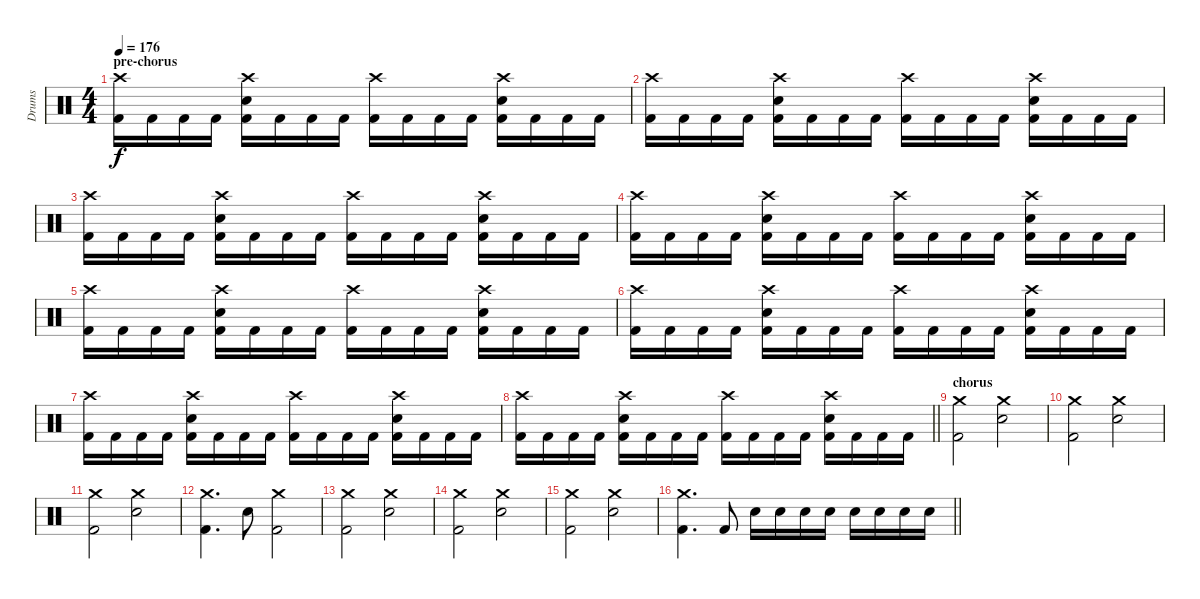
\track ("Drums" "Drums") {instrument percussion}
\staff {score}
\articulation defaults
\ts (4 4)
\section ("" "pre-chorus")
\tempo 176
\clef neutral
\ks c
("Crash high (hit)" "Kick (hit) 2").16{dy f} "Kick (hit) 2".16 "Kick (hit) 2".16 "Kick (hit) 2".16 ("Crash high (hit)" "Electric Snare (hit)" "Kick (hit) 2").16 "Kick (hit) 2".16 "Kick (hit) 2".16 "Kick (hit) 2".16 ("Crash high (hit)" "Kick (hit) 2").16 "Kick (hit) 2".16 "Kick (hit) 2".16 "Kick (hit) 2".16 ("Crash high (hit)" "Electric Snare (hit)" "Kick (hit) 2").16 "Kick (hit) 2".16 "Kick (hit) 2".16 "Kick (hit) 2".16 |
("Crash high (hit)" "Kick (hit) 2").16 "Kick (hit) 2".16 "Kick (hit) 2".16 "Kick (hit) 2".16 ("Crash high (hit)" "Electric Snare (hit)" "Kick (hit) 2").16 "Kick (hit) 2".16 "Kick (hit) 2".16 "Kick (hit) 2".16 ("Crash high (hit)" "Kick (hit) 2").16 "Kick (hit) 2".16 "Kick (hit) 2".16 "Kick (hit) 2".16 ("Crash high (hit)" "Electric Snare (hit)" "Kick (hit) 2").16 "Kick (hit) 2".16 "Kick (hit) 2".16 "Kick (hit) 2".16 |
("Crash high (hit)" "Kick (hit) 2").16 "Kick (hit) 2".16 "Kick (hit) 2".16 "Kick (hit) 2".16 ("Crash high (hit)" "Electric Snare (hit)" "Kick (hit) 2").16 "Kick (hit) 2".16 "Kick (hit) 2".16 "Kick (hit) 2".16 ("Crash high (hit)" "Kick (hit) 2").16 "Kick (hit) 2".16 "Kick (hit) 2".16 "Kick (hit) 2".16 ("Crash high (hit)" "Electric Snare (hit)" "Kick (hit) 2").16 "Kick (hit) 2".16 "Kick (hit) 2".16 "Kick (hit) 2".16 |
("Crash high (hit)" "Kick (hit) 2").16 "Kick (hit) 2".16 "Kick (hit) 2".16 "Kick (hit) 2".16 ("Crash high (hit)" "Electric Snare (hit)" "Kick (hit) 2").16 "Kick (hit) 2".16 "Kick (hit) 2".16 "Kick (hit) 2".16 ("Crash high (hit)" "Kick (hit) 2").16 "Kick (hit) 2".16 "Kick (hit) 2".16 "Kick (hit) 2".16 ("Crash high (hit)" "Electric Snare (hit)" "Kick (hit) 2").16 "Kick (hit) 2".16 "Kick (hit) 2".16 "Kick (hit) 2".16 |
("Crash high (hit)" "Kick (hit) 2").16 "Kick (hit) 2".16 "Kick (hit) 2".16 "Kick (hit) 2".16 ("Crash high (hit)" "Electric Snare (hit)" "Kick (hit) 2").16 "Kick (hit) 2".16 "Kick (hit) 2".16 "Kick (hit) 2".16 ("Crash high (hit)" "Kick (hit) 2").16 "Kick (hit) 2".16 "Kick (hit) 2".16 "Kick (hit) 2".16 ("Crash high (hit)" "Electric Snare (hit)" "Kick (hit) 2").16 "Kick (hit) 2".16 "Kick (hit) 2".16 "Kick (hit) 2".16 |
("Crash high (hit)" "Kick (hit) 2").16 "Kick (hit) 2".16 "Kick (hit) 2".16 "Kick (hit) 2".16 ("Crash high (hit)" "Electric Snare (hit)" "Kick (hit) 2").16 "Kick (hit) 2".16 "Kick (hit) 2".16 "Kick (hit) 2".16 ("Crash high (hit)" "Kick (hit) 2").16 "Kick (hit) 2".16 "Kick (hit) 2".16 "Kick (hit) 2".16 ("Crash high (hit)" "Electric Snare (hit)" "Kick (hit) 2").16 "Kick (hit) 2".16 "Kick (hit) 2".16 "Kick (hit) 2".16 |
("Crash high (hit)" "Kick (hit) 2").16 "Kick (hit) 2".16 "Kick (hit) 2".16 "Kick (hit) 2".16 ("Crash high (hit)" "Electric Snare (hit)" "Kick (hit) 2").16 "Kick (hit) 2".16 "Kick (hit) 2".16 "Kick (hit) 2".16 ("Crash high (hit)" "Kick (hit) 2").16 "Kick (hit) 2".16 "Kick (hit) 2".16 "Kick (hit) 2".16 ("Crash high (hit)" "Electric Snare (hit)" "Kick (hit) 2").16 "Kick (hit) 2".16 "Kick (hit) 2".16 "Kick (hit) 2".16 |
\barLineRight lightlight
("Crash high (hit)" "Kick (hit) 2").16 "Kick (hit) 2".16 "Kick (hit) 2".16 "Kick (hit) 2".16 ("Crash high (hit)" "Electric Snare (hit)" "Kick (hit) 2").16 "Kick (hit) 2".16 "Kick (hit) 2".16 "Kick (hit) 2".16 ("Crash high (hit)" "Kick (hit) 2").16 "Kick (hit) 2".16 "Kick (hit) 2".16 "Kick (hit) 2".16 ("Crash high (hit)" "Electric Snare (hit)" "Kick (hit) 2").16 "Kick (hit) 2".16 "Kick (hit) 2".16 "Kick (hit) 2".16 |
\section ("" "chorus")
("Crash medium (hit)" "Kick (hit) 2").2 ("Crash medium (hit)" "Electric Snare (hit)").2 |
("Crash medium (hit)" "Kick (hit) 2").2 ("Crash medium (hit)" "Electric Snare (hit)").2 |
("Crash medium (hit)" "Kick (hit) 2").2 ("Crash medium (hit)" "Electric Snare (hit)").2 |
("Crash medium (hit)" "Kick (hit) 2").4{d} "Electric Snare (hit)".8 ("Crash medium (hit)" "Kick (hit) 2").2 |
("Crash medium (hit)" "Kick (hit) 2").2 ("Crash medium (hit)" "Electric Snare (hit)").2 |
("Crash medium (hit)" "Kick (hit) 2").2 ("Crash medium (hit)" "Electric Snare (hit)").2 |
("Crash medium (hit)" "Kick (hit) 2").2 ("Crash medium (hit)" "Electric Snare (hit)").2 |
\barLineRight lightlight
("Crash medium (hit)" "Kick (hit) 2").4{d} "Kick (hit) 2".8 "Electric Snare (hit)".16 "Electric Snare (hit)".16 "Electric Snare (hit)".16 "Electric Snare (hit)".16 "Electric Snare (hit)".16 "Electric Snare (hit)".16 "Electric Snare (hit)".16 "Electric Snare (hit)".16
